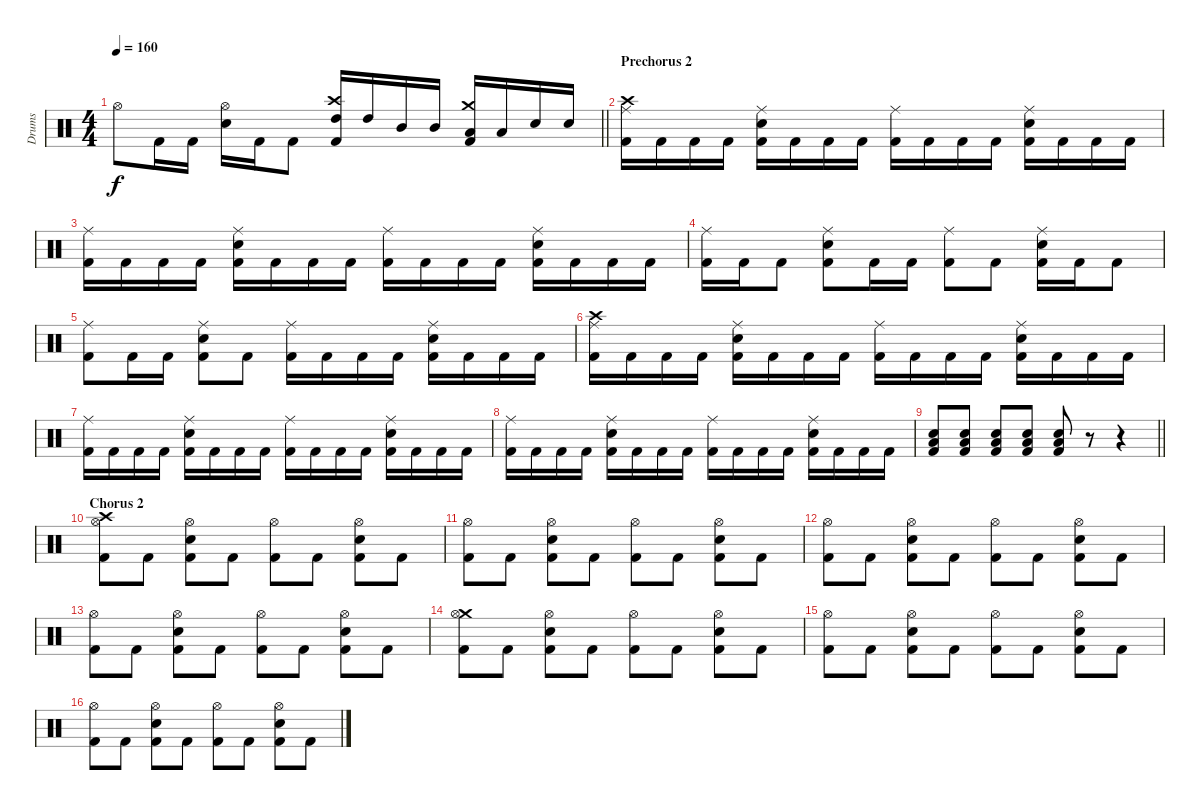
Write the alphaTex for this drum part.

\track ("Drums" "Drums") {instrument percussion}
\staff {score}
\articulation defaults
\ts (4 4)
\tempo 160
\clef neutral
\barLineRight lightlight
\ks c "Hi-Hat (open)".8{dy f} "Kick (hit) 2".16 "Kick (hit) 2".16
("Hi-Hat (open)" "Snare (hit) 2").16 "Kick (hit) 2".16 "Kick (hit) 2".8 ("Crash high (hit)" "High Tom (hit)" "Kick (hit) 2").16 "High Tom (hit)".16 "Mid Tom (hit)".16 "Mid Tom (hit)".16 ("Crash medium (hit)" "Low Tom (hit)" "Kick (hit) 2").16 "Low Tom (hit)".16 "Snare (hit) 2".16 "Snare (hit) 2".16 |
\section ("" "Prechorus 2")
("Crash high (hit)" "Ride (middle)" "Kick (hit) 2").16 "Kick (hit) 2".16 "Kick (hit) 2".16 "Kick (hit) 2".16 ("Ride (middle)" "Snare (hit) 2" "Kick (hit) 2").16 "Kick (hit) 2".16 "Kick (hit) 2".16 "Kick (hit) 2".16 ("Ride (middle)" "Kick (hit) 2").16 "Kick (hit) 2".16 "Kick (hit) 2".16 "Kick (hit) 2".16 ("Ride (middle)" "Snare (hit) 2" "Kick (hit) 2").16 "Kick (hit) 2".16 "Kick (hit) 2".16 "Kick (hit) 2".16 |
("Ride (middle)" "Kick (hit) 2").16 "Kick (hit) 2".16 "Kick (hit) 2".16 "Kick (hit) 2".16 ("Ride (middle)" "Snare (hit) 2" "Kick (hit) 2").16 "Kick (hit) 2".16 "Kick (hit) 2".16 "Kick (hit) 2".16 ("Ride (middle)" "Kick (hit) 2").16 "Kick (hit) 2".16 "Kick (hit) 2".16 "Kick (hit) 2".16 ("Ride (middle)" "Snare (hit) 2" "Kick (hit) 2").16 "Kick (hit) 2".16 "Kick (hit) 2".16 "Kick (hit) 2".16 |
("Ride (middle)" "Kick (hit) 2").16 "Kick (hit) 2".16 "Kick (hit) 2".8 ("Ride (middle)" "Snare (hit) 2" "Kick (hit) 2").8 "Kick (hit) 2".16 "Kick (hit) 2".16 ("Ride (middle)" "Kick (hit) 2").8 "Kick (hit) 2".8 ("Ride (middle)" "Snare (hit) 2" "Kick (hit) 2").16 "Kick (hit) 2".16 "Kick (hit) 2".8 |
("Ride (middle)" "Kick (hit) 2").8 "Kick (hit) 2".16 "Kick (hit) 2".16 ("Ride (middle)" "Snare (hit) 2" "Kick (hit) 2").8 "Kick (hit) 2".8 ("Ride (middle)" "Kick (hit) 2").16 "Kick (hit) 2".16 "Kick (hit) 2".16 "Kick (hit) 2".16 ("Ride (middle)" "Snare (hit) 2" "Kick (hit) 2").16 "Kick (hit) 2".16 "Kick (hit) 2".16 "Kick (hit) 2".16 |
("Crash high (hit)" "Ride (middle)" "Kick (hit) 2").16 "Kick (hit) 2".16 "Kick (hit) 2".16 "Kick (hit) 2".16 ("Ride (middle)" "Snare (hit) 2" "Kick (hit) 2").16 "Kick (hit) 2".16 "Kick (hit) 2".16 "Kick (hit) 2".16 ("Ride (middle)" "Kick (hit) 2").16 "Kick (hit) 2".16 "Kick (hit) 2".16 "Kick (hit) 2".16 ("Ride (middle)" "Snare (hit) 2" "Kick (hit) 2").16 "Kick (hit) 2".16 "Kick (hit) 2".16 "Kick (hit) 2".16 |
("Ride (middle)" "Kick (hit) 2").16 "Kick (hit) 2".16 "Kick (hit) 2".16 "Kick (hit) 2".16 ("Ride (middle)" "Snare (hit) 2" "Kick (hit) 2").16 "Kick (hit) 2".16 "Kick (hit) 2".16 "Kick (hit) 2".16 ("Ride (middle)" "Kick (hit) 2").16 "Kick (hit) 2".16 "Kick (hit) 2".16 "Kick (hit) 2".16 ("Ride (middle)" "Snare (hit) 2" "Kick (hit) 2").16 "Kick (hit) 2".16 "Kick (hit) 2".16 "Kick (hit) 2".16 |
("Ride (middle)" "Kick (hit) 2").16 "Kick (hit) 2".16 "Kick (hit) 2".16 "Kick (hit) 2".16 ("Ride (middle)" "Snare (hit) 2" "Kick (hit) 2").16 "Kick (hit) 2".16 "Kick (hit) 2".16 "Kick (hit) 2".16 ("Ride (middle)" "Kick (hit) 2").16 "Kick (hit) 2".16 "Kick (hit) 2".16 "Kick (hit) 2".16 ("Ride (middle)" "Snare (hit) 2" "Kick (hit) 2").16 "Kick (hit) 2".16 "Kick (hit) 2".16 "Kick (hit) 2".16 |
\barLineRight lightlight
("Low Floor Tom (hit)" "Snare (hit) 2" "Kick (hit) 2").8 ("Low Floor Tom (hit)" "Snare (hit) 2" "Kick (hit) 2").8 ("Low Floor Tom (hit)" "Snare (hit) 2" "Kick (hit) 2").8 ("Low Floor Tom (hit)" "Snare (hit) 2" "Kick (hit) 2").8 ("Low Floor Tom (hit)" "Snare (hit) 2" "Kick (hit) 2").8 r.8 r.4 |
\section ("" "Chorus 2")
("Crash high (hit)" "Hi-Hat (open)" "Kick (hit) 2").8 "Kick (hit) 2".8 ("Hi-Hat (open)" "Snare (hit) 2" "Kick (hit) 2").8 "Kick (hit) 2".8 ("Hi-Hat (open)" "Kick (hit) 2").8 "Kick (hit) 2".8 ("Hi-Hat (open)" "Snare (hit) 2" "Kick (hit) 2").8 "Kick (hit) 2".8 |
("Hi-Hat (open)" "Kick (hit) 2").8 "Kick (hit) 2".8 ("Hi-Hat (open)" "Snare (hit) 2" "Kick (hit) 2").8 "Kick (hit) 2".8 ("Hi-Hat (open)" "Kick (hit) 2").8 "Kick (hit) 2".8 ("Hi-Hat (open)" "Snare (hit) 2" "Kick (hit) 2").8 "Kick (hit) 2".8 |
("Hi-Hat (open)" "Kick (hit) 2").8 "Kick (hit) 2".8 ("Hi-Hat (open)" "Snare (hit) 2" "Kick (hit) 2").8 "Kick (hit) 2".8 ("Hi-Hat (open)" "Kick (hit) 2").8 "Kick (hit) 2".8 ("Hi-Hat (open)" "Snare (hit) 2" "Kick (hit) 2").8 "Kick (hit) 2".8 |
("Hi-Hat (open)" "Kick (hit) 2").8 "Kick (hit) 2".8 ("Hi-Hat (open)" "Snare (hit) 2" "Kick (hit) 2").8 "Kick (hit) 2".8 ("Hi-Hat (open)" "Kick (hit) 2").8 "Kick (hit) 2".8 ("Hi-Hat (open)" "Snare (hit) 2" "Kick (hit) 2").8 "Kick (hit) 2".8 |
("Crash medium (hit)" "Hi-Hat (open)" "Kick (hit) 2").8 "Kick (hit) 2".8 ("Hi-Hat (open)" "Snare (hit) 2" "Kick (hit) 2").8 "Kick (hit) 2".8 ("Hi-Hat (open)" "Kick (hit) 2").8 "Kick (hit) 2".8 ("Hi-Hat (open)" "Snare (hit) 2" "Kick (hit) 2").8 "Kick (hit) 2".8 |
("Hi-Hat (open)" "Kick (hit) 2").8 "Kick (hit) 2".8 ("Hi-Hat (open)" "Snare (hit) 2" "Kick (hit) 2").8 "Kick (hit) 2".8 ("Hi-Hat (open)" "Kick (hit) 2").8 "Kick (hit) 2".8 ("Hi-Hat (open)" "Snare (hit) 2" "Kick (hit) 2").8 "Kick (hit) 2".8 |
("Hi-Hat (open)" "Kick (hit) 2").8 "Kick (hit) 2".8 ("Hi-Hat (open)" "Snare (hit) 2" "Kick (hit) 2").8 "Kick (hit) 2".8 ("Hi-Hat (open)" "Kick (hit) 2").8 "Kick (hit) 2".8 ("Hi-Hat (open)" "Snare (hit) 2" "Kick (hit) 2").8 "Kick (hit) 2".8
